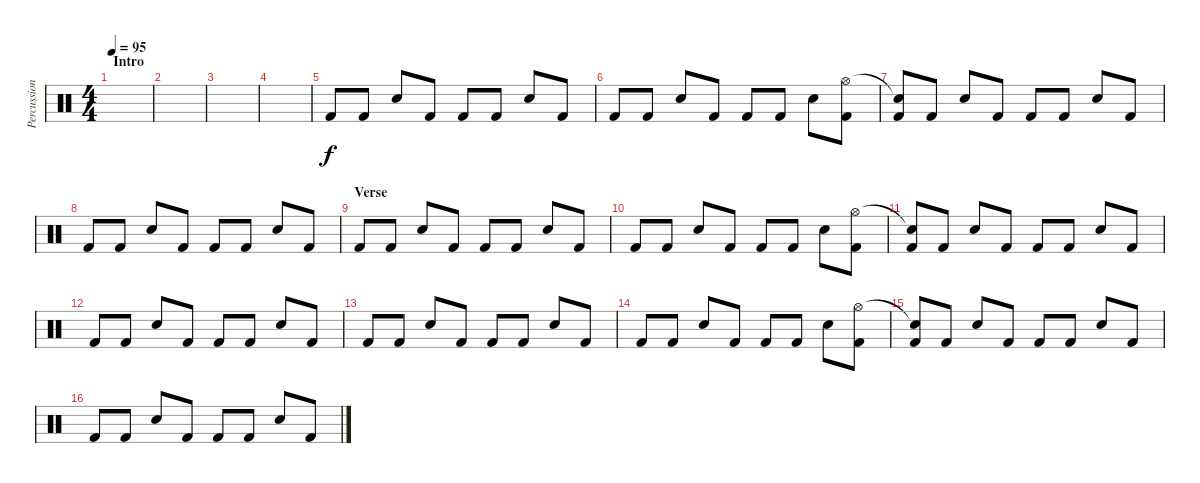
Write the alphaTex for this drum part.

\track ("Percussion" "Percussion") {instrument percussion}
\staff {score}
\articulation defaults
\ts (4 4)
\section ("" "Intro")
\tempo 95
\clef neutral
\ks c
|
|
|
|
"Kick (hit) 2".8 "Kick (hit) 2".8 "Electric Snare (hit)".8 "Kick (hit) 2".8 "Kick (hit) 2".8 "Kick (hit) 2".8 "Electric Snare (hit)".8 "Kick (hit) 2".8 |
"Kick (hit) 2".8 "Kick (hit) 2".8 "Electric Snare (hit)".8 "Kick (hit) 2".8 "Kick (hit) 2".8 "Kick (hit) 2".8 "Electric Snare (hit)".8 ("Hi-Hat (open)" "Kick (hit) 2").8 |
("Snare (hit)"{t} "Kick (hit) 2").8 "Kick (hit) 2".8 "Electric Snare (hit)".8 "Kick (hit) 2".8 "Kick (hit) 2".8 "Kick (hit) 2".8 "Electric Snare (hit)".8 "Kick (hit) 2".8 |
"Kick (hit) 2".8 "Kick (hit) 2".8 "Electric Snare (hit)".8 "Kick (hit) 2".8 "Kick (hit) 2".8 "Kick (hit) 2".8 "Electric Snare (hit)".8 "Kick (hit) 2".8 |
\section ("" "Verse")
"Kick (hit) 2".8 "Kick (hit) 2".8 "Electric Snare (hit)".8 "Kick (hit) 2".8 "Kick (hit) 2".8 "Kick (hit) 2".8 "Electric Snare (hit)".8 "Kick (hit) 2".8 |
"Kick (hit) 2".8 "Kick (hit) 2".8 "Electric Snare (hit)".8 "Kick (hit) 2".8 "Kick (hit) 2".8 "Kick (hit) 2".8 "Electric Snare (hit)".8 ("Hi-Hat (open)" "Kick (hit) 2").8 |
("Snare (hit)"{t} "Kick (hit) 2").8 "Kick (hit) 2".8 "Electric Snare (hit)".8 "Kick (hit) 2".8 "Kick (hit) 2".8 "Kick (hit) 2".8 "Electric Snare (hit)".8 "Kick (hit) 2".8 |
"Kick (hit) 2".8 "Kick (hit) 2".8 "Electric Snare (hit)".8 "Kick (hit) 2".8 "Kick (hit) 2".8 "Kick (hit) 2".8 "Electric Snare (hit)".8 "Kick (hit) 2".8 |
"Kick (hit) 2".8 "Kick (hit) 2".8 "Electric Snare (hit)".8 "Kick (hit) 2".8 "Kick (hit) 2".8 "Kick (hit) 2".8 "Electric Snare (hit)".8 "Kick (hit) 2".8 |
"Kick (hit) 2".8 "Kick (hit) 2".8 "Electric Snare (hit)".8 "Kick (hit) 2".8 "Kick (hit) 2".8 "Kick (hit) 2".8 "Electric Snare (hit)".8 ("Hi-Hat (open)" "Kick (hit) 2").8 |
("Snare (hit)"{t} "Kick (hit) 2").8 "Kick (hit) 2".8 "Electric Snare (hit)".8 "Kick (hit) 2".8 "Kick (hit) 2".8 "Kick (hit) 2".8 "Electric Snare (hit)".8 "Kick (hit) 2".8 |
"Kick (hit) 2".8 "Kick (hit) 2".8 "Electric Snare (hit)".8 "Kick (hit) 2".8 "Kick (hit) 2".8 "Kick (hit) 2".8 "Electric Snare (hit)".8 "Kick (hit) 2".8
